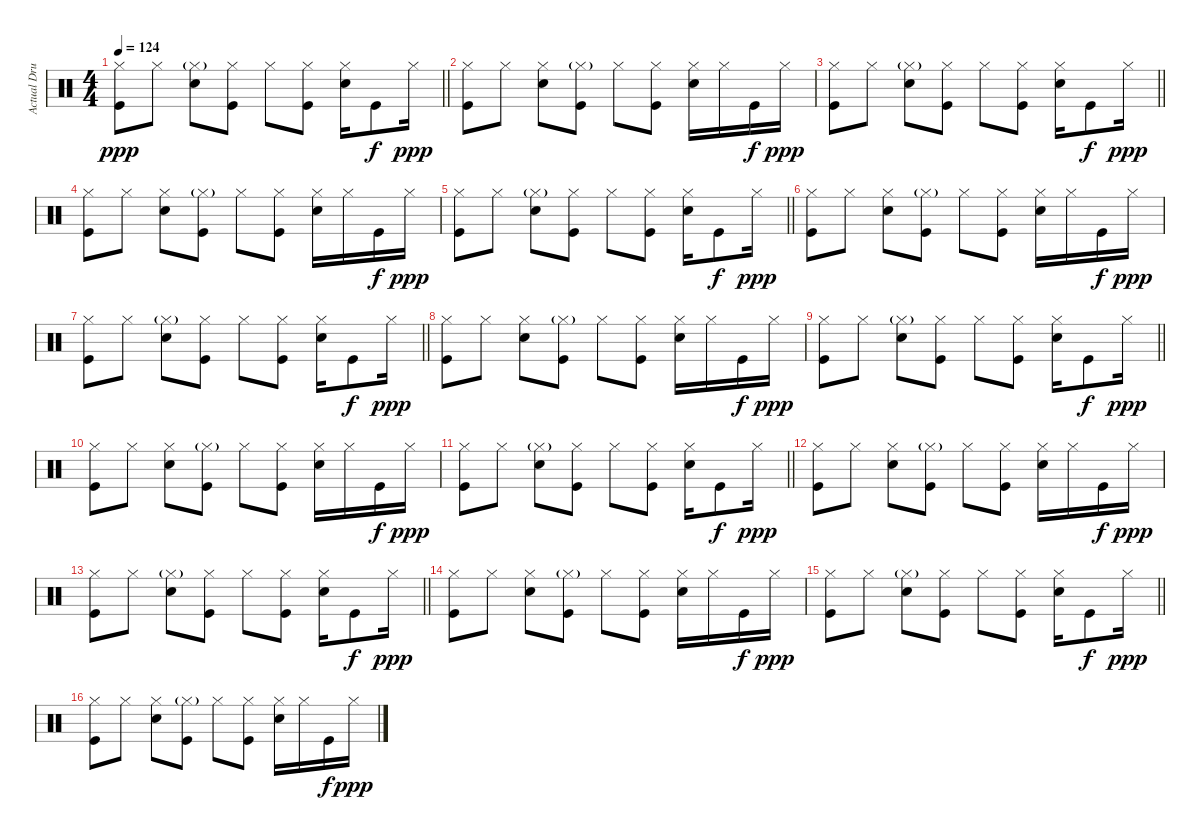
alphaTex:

\track ("Actual Drums" "Actual Dru") {instrument percussion}
\staff {score}
\articulation defaults
\ts (4 4)
\tempo 124
\clef neutral
\barLineRight lightlight
\ks c
("Hi-Hat (closed)" "Kick (hit)").8{dy ppp} "Hi-Hat (closed)".8 ("Hi-Hat (closed)"{g} "Snare (hit) 2").8 ("Hi-Hat (closed)" "Kick (hit)").8 "Hi-Hat (closed)".8 ("Hi-Hat (closed)" "Kick (hit)").8 ("Hi-Hat (closed)" "Snare (hit) 2").16 "Kick (hit)".8{dy f} "Hi-Hat (closed)".16{dy ppp} |
("Hi-Hat (closed)" "Kick (hit)").8 "Hi-Hat (closed)".8 ("Hi-Hat (closed)" "Snare (hit) 2").8 ("Hi-Hat (closed)"{g} "Kick (hit)").8 "Hi-Hat (closed)".8 ("Hi-Hat (closed)" "Kick (hit)").8 ("Hi-Hat (closed)" "Snare (hit) 2").16 "Hi-Hat (closed)".16 "Kick (hit)".16{dy f} "Hi-Hat (closed)".16{dy ppp} |
\barLineRight lightlight
("Hi-Hat (closed)" "Kick (hit)").8 "Hi-Hat (closed)".8 ("Hi-Hat (closed)"{g} "Snare (hit) 2").8 ("Hi-Hat (closed)" "Kick (hit)").8 "Hi-Hat (closed)".8 ("Hi-Hat (closed)" "Kick (hit)").8 ("Hi-Hat (closed)" "Snare (hit) 2").16 "Kick (hit)".8{dy f} "Hi-Hat (closed)".16{dy ppp} |
("Hi-Hat (closed)" "Kick (hit)").8 "Hi-Hat (closed)".8 ("Hi-Hat (closed)" "Snare (hit) 2").8 ("Hi-Hat (closed)"{g} "Kick (hit)").8 "Hi-Hat (closed)".8 ("Hi-Hat (closed)" "Kick (hit)").8 ("Hi-Hat (closed)" "Snare (hit) 2").16 "Hi-Hat (closed)".16 "Kick (hit)".16{dy f} "Hi-Hat (closed)".16{dy ppp} |
\barLineRight lightlight
("Hi-Hat (closed)" "Kick (hit)").8 "Hi-Hat (closed)".8 ("Hi-Hat (closed)"{g} "Snare (hit) 2").8 ("Hi-Hat (closed)" "Kick (hit)").8 "Hi-Hat (closed)".8 ("Hi-Hat (closed)" "Kick (hit)").8 ("Hi-Hat (closed)" "Snare (hit) 2").16 "Kick (hit)".8{dy f} "Hi-Hat (closed)".16{dy ppp} |
("Hi-Hat (closed)" "Kick (hit)").8 "Hi-Hat (closed)".8 ("Hi-Hat (closed)" "Snare (hit) 2").8 ("Hi-Hat (closed)"{g} "Kick (hit)").8 "Hi-Hat (closed)".8 ("Hi-Hat (closed)" "Kick (hit)").8 ("Hi-Hat (closed)" "Snare (hit) 2").16 "Hi-Hat (closed)".16 "Kick (hit)".16{dy f} "Hi-Hat (closed)".16{dy ppp} |
\barLineRight lightlight
("Hi-Hat (closed)" "Kick (hit)").8 "Hi-Hat (closed)".8 ("Hi-Hat (closed)"{g} "Snare (hit) 2").8 ("Hi-Hat (closed)" "Kick (hit)").8 "Hi-Hat (closed)".8 ("Hi-Hat (closed)" "Kick (hit)").8 ("Hi-Hat (closed)" "Snare (hit) 2").16 "Kick (hit)".8{dy f} "Hi-Hat (closed)".16{dy ppp} |
("Hi-Hat (closed)" "Kick (hit)").8 "Hi-Hat (closed)".8 ("Hi-Hat (closed)" "Snare (hit) 2").8 ("Hi-Hat (closed)"{g} "Kick (hit)").8 "Hi-Hat (closed)".8 ("Hi-Hat (closed)" "Kick (hit)").8 ("Hi-Hat (closed)" "Snare (hit) 2").16 "Hi-Hat (closed)".16 "Kick (hit)".16{dy f} "Hi-Hat (closed)".16{dy ppp} |
\barLineRight lightlight
("Hi-Hat (closed)" "Kick (hit)").8 "Hi-Hat (closed)".8 ("Hi-Hat (closed)"{g} "Snare (hit) 2").8 ("Hi-Hat (closed)" "Kick (hit)").8 "Hi-Hat (closed)".8 ("Hi-Hat (closed)" "Kick (hit)").8 ("Hi-Hat (closed)" "Snare (hit) 2").16 "Kick (hit)".8{dy f} "Hi-Hat (closed)".16{dy ppp} |
("Hi-Hat (closed)" "Kick (hit)").8 "Hi-Hat (closed)".8 ("Hi-Hat (closed)" "Snare (hit) 2").8 ("Hi-Hat (closed)"{g} "Kick (hit)").8 "Hi-Hat (closed)".8 ("Hi-Hat (closed)" "Kick (hit)").8 ("Hi-Hat (closed)" "Snare (hit) 2").16 "Hi-Hat (closed)".16 "Kick (hit)".16{dy f} "Hi-Hat (closed)".16{dy ppp} |
\barLineRight lightlight
("Hi-Hat (closed)" "Kick (hit)").8 "Hi-Hat (closed)".8 ("Hi-Hat (closed)"{g} "Snare (hit) 2").8 ("Hi-Hat (closed)" "Kick (hit)").8 "Hi-Hat (closed)".8 ("Hi-Hat (closed)" "Kick (hit)").8 ("Hi-Hat (closed)" "Snare (hit) 2").16 "Kick (hit)".8{dy f} "Hi-Hat (closed)".16{dy ppp} |
("Hi-Hat (closed)" "Kick (hit)").8 "Hi-Hat (closed)".8 ("Hi-Hat (closed)" "Snare (hit) 2").8 ("Hi-Hat (closed)"{g} "Kick (hit)").8 "Hi-Hat (closed)".8 ("Hi-Hat (closed)" "Kick (hit)").8 ("Hi-Hat (closed)" "Snare (hit) 2").16 "Hi-Hat (closed)".16 "Kick (hit)".16{dy f} "Hi-Hat (closed)".16{dy ppp} |
\barLineRight lightlight
("Hi-Hat (closed)" "Kick (hit)").8 "Hi-Hat (closed)".8 ("Hi-Hat (closed)"{g} "Snare (hit) 2").8 ("Hi-Hat (closed)" "Kick (hit)").8 "Hi-Hat (closed)".8 ("Hi-Hat (closed)" "Kick (hit)").8 ("Hi-Hat (closed)" "Snare (hit) 2").16 "Kick (hit)".8{dy f} "Hi-Hat (closed)".16{dy ppp} |
("Hi-Hat (closed)" "Kick (hit)").8 "Hi-Hat (closed)".8 ("Hi-Hat (closed)" "Snare (hit) 2").8 ("Hi-Hat (closed)"{g} "Kick (hit)").8 "Hi-Hat (closed)".8 ("Hi-Hat (closed)" "Kick (hit)").8 ("Hi-Hat (closed)" "Snare (hit) 2").16 "Hi-Hat (closed)".16 "Kick (hit)".16{dy f} "Hi-Hat (closed)".16{dy ppp} |
\barLineRight lightlight
("Hi-Hat (closed)" "Kick (hit)").8 "Hi-Hat (closed)".8 ("Hi-Hat (closed)"{g} "Snare (hit) 2").8 ("Hi-Hat (closed)" "Kick (hit)").8 "Hi-Hat (closed)".8 ("Hi-Hat (closed)" "Kick (hit)").8 ("Hi-Hat (closed)" "Snare (hit) 2").16 "Kick (hit)".8{dy f} "Hi-Hat (closed)".16{dy ppp} |
("Hi-Hat (closed)" "Kick (hit)").8 "Hi-Hat (closed)".8 ("Hi-Hat (closed)" "Snare (hit) 2").8 ("Hi-Hat (closed)"{g} "Kick (hit)").8 "Hi-Hat (closed)".8 ("Hi-Hat (closed)" "Kick (hit)").8 ("Hi-Hat (closed)" "Snare (hit) 2").16 "Hi-Hat (closed)".16 "Kick (hit)".16{dy f} "Hi-Hat (closed)".16{dy ppp}
